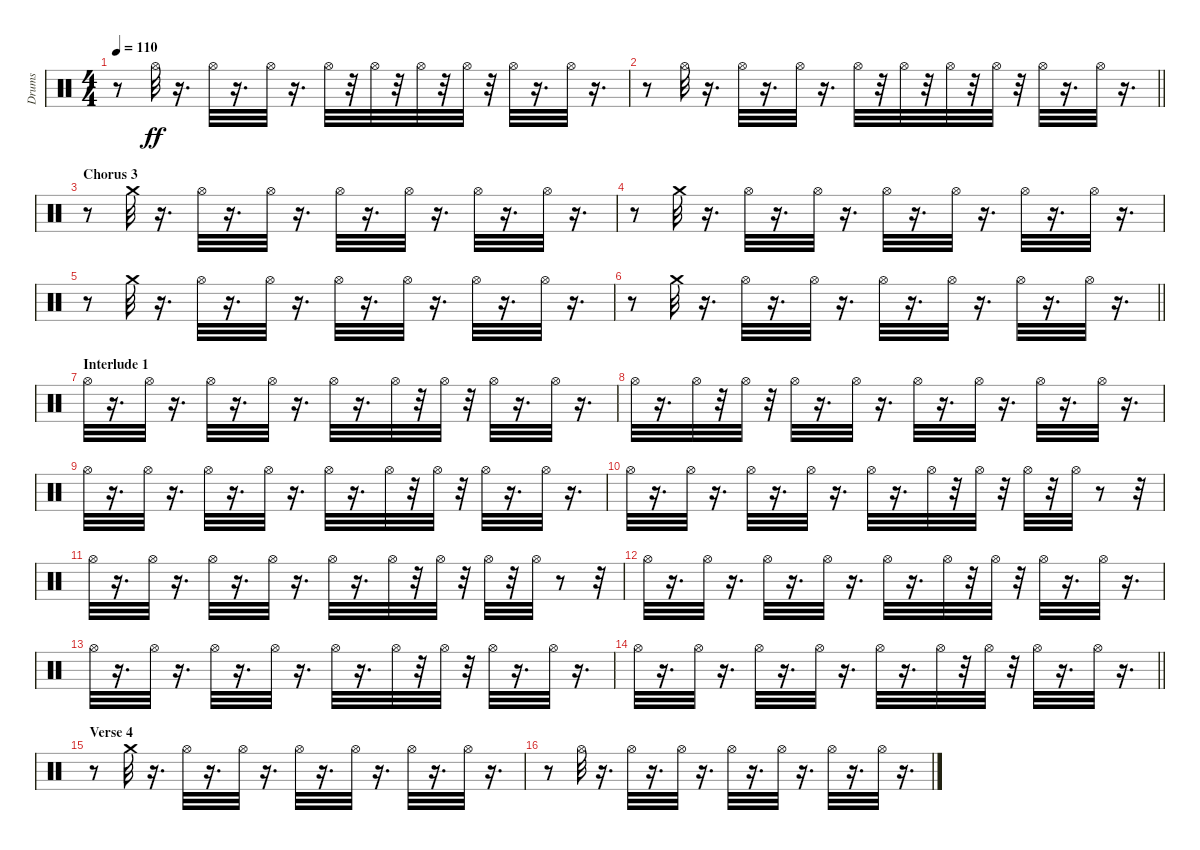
\track ("Drums" "Drums") {instrument percussion}
\staff {score}
\articulation defaults
\ts (4 4)
\tempo 110
\clef neutral
\ks c
r.8{dy ff} "Hi-Hat (open)".32 r.16{d} "Hi-Hat (open)".32 r.16{d} "Hi-Hat (open)".32 r.16{d} "Hi-Hat (open)".32 r.32 "Hi-Hat (open)".32 r.32 "Hi-Hat (open)".32 r.32 "Hi-Hat (open)".32 r.32 "Hi-Hat (open)".32 r.16{d} "Hi-Hat (open)".32 r.16{d} |
\barLineRight lightlight
r.8 "Hi-Hat (open)".32 r.16{d} "Hi-Hat (open)".32 r.16{d} "Hi-Hat (open)".32 r.16{d} "Hi-Hat (open)".32 r.32 "Hi-Hat (open)".32 r.32 "Hi-Hat (open)".32 r.32 "Hi-Hat (open)".32 r.32 "Hi-Hat (open)".32 r.16{d} "Hi-Hat (open)".32 r.16{d} |
\section ("" "Chorus 3")
r.8 "Crash medium (hit)".32 r.16{d} "Hi-Hat (open)".32 r.16{d} "Hi-Hat (open)".32 r.16{d} "Hi-Hat (open)".32 r.16{d} "Hi-Hat (open)".32 r.16{d} "Hi-Hat (open)".32 r.16{d} "Hi-Hat (open)".32 r.16{d} |
r.8 "Crash medium (hit)".32 r.16{d} "Hi-Hat (open)".32 r.16{d} "Hi-Hat (open)".32 r.16{d} "Hi-Hat (open)".32 r.16{d} "Hi-Hat (open)".32 r.16{d} "Hi-Hat (open)".32 r.16{d} "Hi-Hat (open)".32 r.16{d} |
r.8 "Crash medium (hit)".32 r.16{d} "Hi-Hat (open)".32 r.16{d} "Hi-Hat (open)".32 r.16{d} "Hi-Hat (open)".32 r.16{d} "Hi-Hat (open)".32 r.16{d} "Hi-Hat (open)".32 r.16{d} "Hi-Hat (open)".32 r.16{d} |
\barLineRight lightlight
r.8 "Crash medium (hit)".32 r.16{d} "Hi-Hat (open)".32 r.16{d} "Hi-Hat (open)".32 r.16{d} "Hi-Hat (open)".32 r.16{d} "Hi-Hat (open)".32 r.16{d} "Hi-Hat (open)".32 r.16{d} "Hi-Hat (open)".32 r.16{d} |
\section ("" "Interlude 1")
"Hi-Hat (open)".32 r.16{d} "Hi-Hat (open)".32 r.16{d} "Hi-Hat (open)".32 r.16{d} "Hi-Hat (open)".32 r.16{d} "Hi-Hat (open)".32 r.16{d} "Hi-Hat (open)".32 r.32 "Hi-Hat (open)".32 r.32 "Hi-Hat (open)".32 r.16{d} "Hi-Hat (open)".32 r.16{d} |
"Hi-Hat (open)".32 r.16{d} "Hi-Hat (open)".32 r.32 "Hi-Hat (open)".32 r.32 "Hi-Hat (open)".32 r.16{d} "Hi-Hat (open)".32 r.16{d} "Hi-Hat (open)".32 r.16{d} "Hi-Hat (open)".32 r.16{d} "Hi-Hat (open)".32 r.16{d} "Hi-Hat (open)".32 r.16{d} |
"Hi-Hat (open)".32 r.16{d} "Hi-Hat (open)".32 r.16{d} "Hi-Hat (open)".32 r.16{d} "Hi-Hat (open)".32 r.16{d} "Hi-Hat (open)".32 r.16{d} "Hi-Hat (open)".32 r.32 "Hi-Hat (open)".32 r.32 "Hi-Hat (open)".32 r.16{d} "Hi-Hat (open)".32 r.16{d} |
"Hi-Hat (open)".32 r.16{d} "Hi-Hat (open)".32 r.16{d} "Hi-Hat (open)".32 r.16{d} "Hi-Hat (open)".32 r.16{d} "Hi-Hat (open)".32 r.16{d} "Hi-Hat (open)".32 r.32 "Hi-Hat (open)".32 r.32 "Hi-Hat (open)".32 r.32 "Hi-Hat (open)".32 r.8 r.32 |
"Hi-Hat (open)".32 r.16{d} "Hi-Hat (open)".32 r.16{d} "Hi-Hat (open)".32 r.16{d} "Hi-Hat (open)".32 r.16{d} "Hi-Hat (open)".32 r.16{d} "Hi-Hat (open)".32 r.32 "Hi-Hat (open)".32 r.32 "Hi-Hat (open)".32 r.32 "Hi-Hat (open)".32 r.8 r.32 |
"Hi-Hat (open)".32 r.16{d} "Hi-Hat (open)".32 r.16{d} "Hi-Hat (open)".32 r.16{d} "Hi-Hat (open)".32 r.16{d} "Hi-Hat (open)".32 r.16{d} "Hi-Hat (open)".32 r.32 "Hi-Hat (open)".32 r.32 "Hi-Hat (open)".32 r.16{d} "Hi-Hat (open)".32 r.16{d} |
"Hi-Hat (open)".32 r.16{d} "Hi-Hat (open)".32 r.16{d} "Hi-Hat (open)".32 r.16{d} "Hi-Hat (open)".32 r.16{d} "Hi-Hat (open)".32 r.16{d} "Hi-Hat (open)".32 r.32 "Hi-Hat (open)".32 r.32 "Hi-Hat (open)".32 r.16{d} "Hi-Hat (open)".32 r.16{d} |
\barLineRight lightlight "Hi-Hat (open)".32
r.16{d} "Hi-Hat (open)".32 r.16{d} "Hi-Hat (open)".32 r.16{d} "Hi-Hat (open)".32 r.16{d} "Hi-Hat (open)".32 r.16{d} "Hi-Hat (open)".32 r.32 "Hi-Hat (open)".32 r.32 "Hi-Hat (open)".32 r.16{d} "Hi-Hat (open)".32 r.16{d} |
\section ("" "Verse 4")
r.8 "Crash medium (hit)".32 r.16{d} "Hi-Hat (open)".32 r.16{d} "Hi-Hat (open)".32 r.16{d} "Hi-Hat (open)".32 r.16{d} "Hi-Hat (open)".32 r.16{d} "Hi-Hat (open)".32 r.16{d} "Hi-Hat (open)".32 r.16{d} |
r.8 "Hi-Hat (open)".32 r.16{d} "Hi-Hat (open)".32 r.16{d} "Hi-Hat (open)".32 r.16{d} "Hi-Hat (open)".32 r.16{d} "Hi-Hat (open)".32 r.16{d} "Hi-Hat (open)".32 r.16{d} "Hi-Hat (open)".32 r.16{d}
